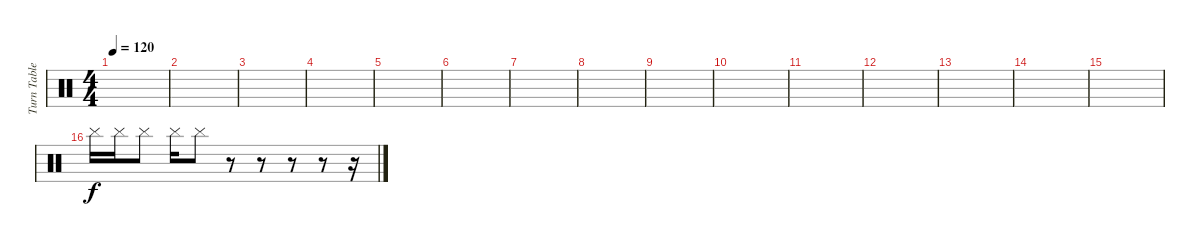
\track ("Turn Tables" "Turn Table") {instrument percussion}
\staff {score}
\articulation defaults
\ts (4 4)
\tempo 120
\clef neutral
\ks c
|
|
|
|
|
|
|
|
|
|
|
|
|
|
|
"Cymbal (hit)".16 "Cymbal (hit)".16 "Cymbal (hit)".8 "Cymbal (hit)".16 "Cymbal (hit)".8 r.8 r.8 r.8 r.8 r.16
